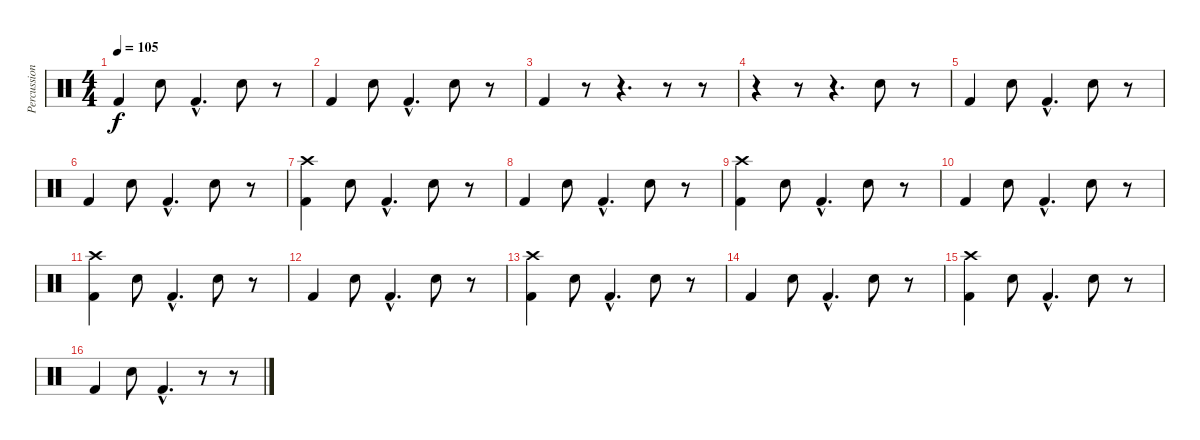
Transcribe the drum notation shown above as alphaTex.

\track ("Percussion" "Percussion") {instrument percussion}
\staff {score}
\articulation defaults
\ts (4 4)
\tempo 105
\clef neutral
\ks c "Kick (hit) 2".4{dy f} "Hand Clap (hit)".8 "Kick (hit) 2"{hac}.4{d} "Hand Clap (hit)".8
r.8 |
"Kick (hit) 2".4 "Hand Clap (hit)".8 "Kick (hit) 2"{hac}.4{d} "Hand Clap (hit)".8 r.8 |
"Kick (hit) 2".4 r.8 r.4{d} r.8 r.8 |
r.4 r.8 r.4{d} "Hand Clap (hit)".8 r.8 |
"Kick (hit) 2".4 "Hand Clap (hit)".8 "Kick (hit) 2"{hac}.4{d} "Hand Clap (hit)".8 r.8 |
"Kick (hit) 2".4 "Hand Clap (hit)".8 "Kick (hit) 2"{hac}.4{d} "Hand Clap (hit)".8 r.8 |
("Crash high (hit)" "Kick (hit) 2").4 "Hand Clap (hit)".8 "Kick (hit) 2"{hac}.4{d} "Hand Clap (hit)".8 r.8 |
"Kick (hit) 2".4 "Hand Clap (hit)".8 "Kick (hit) 2"{hac}.4{d} "Hand Clap (hit)".8 r.8 |
("Crash high (hit)" "Kick (hit) 2").4 "Hand Clap (hit)".8 "Kick (hit) 2"{hac}.4{d} "Hand Clap (hit)".8 r.8 |
"Kick (hit) 2".4 "Hand Clap (hit)".8 "Kick (hit) 2"{hac}.4{d} "Hand Clap (hit)".8 r.8 |
("Crash high (hit)" "Kick (hit) 2").4 "Hand Clap (hit)".8 "Kick (hit) 2"{hac}.4{d} "Hand Clap (hit)".8 r.8 |
"Kick (hit) 2".4 "Hand Clap (hit)".8 "Kick (hit) 2"{hac}.4{d} "Hand Clap (hit)".8 r.8 |
("Crash high (hit)" "Kick (hit) 2").4 "Hand Clap (hit)".8 "Kick (hit) 2"{hac}.4{d} "Hand Clap (hit)".8 r.8 |
"Kick (hit) 2".4 "Hand Clap (hit)".8 "Kick (hit) 2"{hac}.4{d} "Hand Clap (hit)".8 r.8 |
("Crash high (hit)" "Kick (hit) 2").4 "Hand Clap (hit)".8 "Kick (hit) 2"{hac}.4{d} "Hand Clap (hit)".8 r.8 |
"Kick (hit) 2".4 "Hand Clap (hit)".8 "Kick (hit) 2"{hac}.4{d} r.8 r.8
